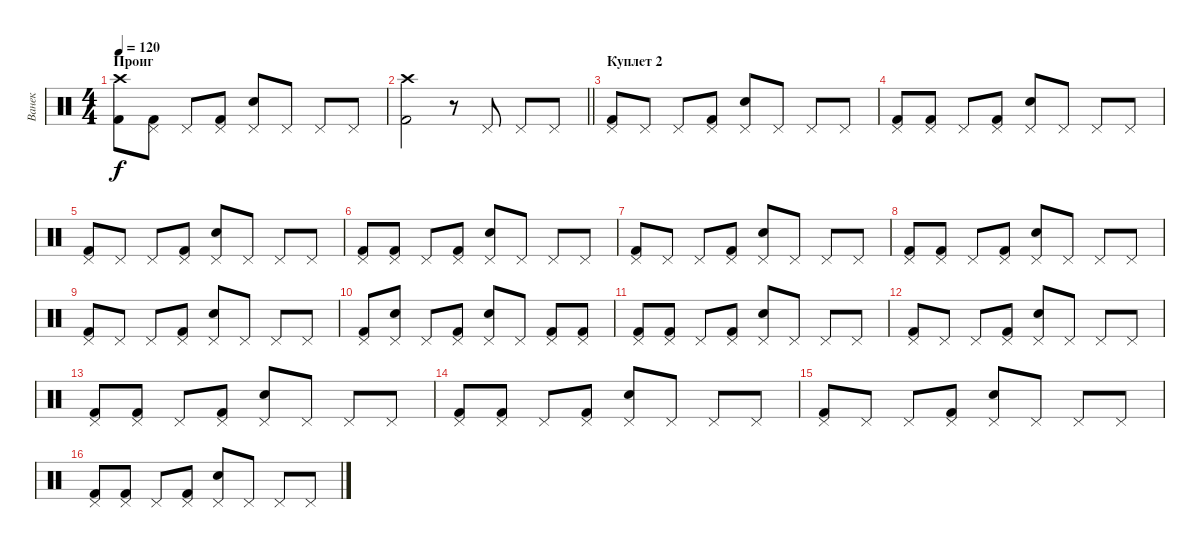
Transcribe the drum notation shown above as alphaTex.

\track ("Ванек" "Ванек") {instrument percussion}
\staff {score}
\articulation defaults
\ts (4 4)
\section ("" "Проиг")
\tempo 120
\clef neutral
\ks c
("Kick (hit) 2" "Crash high (hit)").8{dy f} ("Kick (hit) 2" "Pedal Hi-Hat (hit)").8 "Pedal Hi-Hat (hit)".8 ("Kick (hit) 2" "Pedal Hi-Hat (hit)").8 ("Electric Snare (hit)" "Pedal Hi-Hat (hit)").8 "Pedal Hi-Hat (hit)".8 "Pedal Hi-Hat (hit)".8 "Pedal Hi-Hat (hit)".8 |
\barLineRight lightlight
("Kick (hit) 2" "Crash high (hit)").2 r.8 "Pedal Hi-Hat (hit)".8 "Pedal Hi-Hat (hit)".8 "Pedal Hi-Hat (hit)".8 |
\section ("" "Куплет 2")
("Kick (hit) 2" "Pedal Hi-Hat (hit)").8 "Pedal Hi-Hat (hit)".8 "Pedal Hi-Hat (hit)".8 ("Kick (hit) 2" "Pedal Hi-Hat (hit)").8 ("Electric Snare (hit)" "Pedal Hi-Hat (hit)").8 "Pedal Hi-Hat (hit)".8 "Pedal Hi-Hat (hit)".8 "Pedal Hi-Hat (hit)".8 |
("Kick (hit) 2" "Pedal Hi-Hat (hit)").8 ("Kick (hit) 2" "Pedal Hi-Hat (hit)").8 "Pedal Hi-Hat (hit)".8 ("Kick (hit) 2" "Pedal Hi-Hat (hit)").8 ("Electric Snare (hit)" "Pedal Hi-Hat (hit)").8 "Pedal Hi-Hat (hit)".8 "Pedal Hi-Hat (hit)".8 "Pedal Hi-Hat (hit)".8 |
("Kick (hit) 2" "Pedal Hi-Hat (hit)").8 "Pedal Hi-Hat (hit)".8 "Pedal Hi-Hat (hit)".8 ("Kick (hit) 2" "Pedal Hi-Hat (hit)").8 ("Electric Snare (hit)" "Pedal Hi-Hat (hit)").8 "Pedal Hi-Hat (hit)".8 "Pedal Hi-Hat (hit)".8 "Pedal Hi-Hat (hit)".8 |
("Kick (hit) 2" "Pedal Hi-Hat (hit)").8 ("Kick (hit) 2" "Pedal Hi-Hat (hit)").8 "Pedal Hi-Hat (hit)".8 ("Kick (hit) 2" "Pedal Hi-Hat (hit)").8 ("Electric Snare (hit)" "Pedal Hi-Hat (hit)").8 "Pedal Hi-Hat (hit)".8 "Pedal Hi-Hat (hit)".8 "Pedal Hi-Hat (hit)".8 |
("Kick (hit) 2" "Pedal Hi-Hat (hit)").8 "Pedal Hi-Hat (hit)".8 "Pedal Hi-Hat (hit)".8 ("Kick (hit) 2" "Pedal Hi-Hat (hit)").8 ("Electric Snare (hit)" "Pedal Hi-Hat (hit)").8 "Pedal Hi-Hat (hit)".8 "Pedal Hi-Hat (hit)".8 "Pedal Hi-Hat (hit)".8 |
("Kick (hit) 2" "Pedal Hi-Hat (hit)").8 ("Kick (hit) 2" "Pedal Hi-Hat (hit)").8 "Pedal Hi-Hat (hit)".8 ("Kick (hit) 2" "Pedal Hi-Hat (hit)").8 ("Electric Snare (hit)" "Pedal Hi-Hat (hit)").8 "Pedal Hi-Hat (hit)".8 "Pedal Hi-Hat (hit)".8 "Pedal Hi-Hat (hit)".8 |
("Kick (hit) 2" "Pedal Hi-Hat (hit)").8 "Pedal Hi-Hat (hit)".8 "Pedal Hi-Hat (hit)".8 ("Kick (hit) 2" "Pedal Hi-Hat (hit)").8 ("Electric Snare (hit)" "Pedal Hi-Hat (hit)").8 "Pedal Hi-Hat (hit)".8 "Pedal Hi-Hat (hit)".8 "Pedal Hi-Hat (hit)".8 |
("Kick (hit) 2" "Pedal Hi-Hat (hit)").8 ("Electric Snare (hit)" "Pedal Hi-Hat (hit)").8 "Pedal Hi-Hat (hit)".8 ("Kick (hit) 2" "Pedal Hi-Hat (hit)").8 ("Electric Snare (hit)" "Pedal Hi-Hat (hit)").8 "Pedal Hi-Hat (hit)".8 ("Kick (hit) 2" "Pedal Hi-Hat (hit)").8 ("Kick (hit) 2" "Pedal Hi-Hat (hit)").8 |
("Kick (hit) 2" "Pedal Hi-Hat (hit)").8 ("Kick (hit) 2" "Pedal Hi-Hat (hit)").8 "Pedal Hi-Hat (hit)".8 ("Kick (hit) 2" "Pedal Hi-Hat (hit)").8 ("Electric Snare (hit)" "Pedal Hi-Hat (hit)").8 "Pedal Hi-Hat (hit)".8 "Pedal Hi-Hat (hit)".8 "Pedal Hi-Hat (hit)".8 |
("Kick (hit) 2" "Pedal Hi-Hat (hit)").8 "Pedal Hi-Hat (hit)".8 "Pedal Hi-Hat (hit)".8 ("Kick (hit) 2" "Pedal Hi-Hat (hit)").8 ("Electric Snare (hit)" "Pedal Hi-Hat (hit)").8 "Pedal Hi-Hat (hit)".8 "Pedal Hi-Hat (hit)".8 "Pedal Hi-Hat (hit)".8 |
("Kick (hit) 2" "Pedal Hi-Hat (hit)").8 ("Kick (hit) 2" "Pedal Hi-Hat (hit)").8 "Pedal Hi-Hat (hit)".8 ("Kick (hit) 2" "Pedal Hi-Hat (hit)").8 ("Electric Snare (hit)" "Pedal Hi-Hat (hit)").8 "Pedal Hi-Hat (hit)".8 "Pedal Hi-Hat (hit)".8 "Pedal Hi-Hat (hit)".8 |
("Kick (hit) 2" "Pedal Hi-Hat (hit)").8 ("Kick (hit) 2" "Pedal Hi-Hat (hit)").8 "Pedal Hi-Hat (hit)".8 ("Kick (hit) 2" "Pedal Hi-Hat (hit)").8 ("Electric Snare (hit)" "Pedal Hi-Hat (hit)").8 "Pedal Hi-Hat (hit)".8 "Pedal Hi-Hat (hit)".8 "Pedal Hi-Hat (hit)".8 |
("Kick (hit) 2" "Pedal Hi-Hat (hit)").8 "Pedal Hi-Hat (hit)".8 "Pedal Hi-Hat (hit)".8 ("Kick (hit) 2" "Pedal Hi-Hat (hit)").8 ("Electric Snare (hit)" "Pedal Hi-Hat (hit)").8 "Pedal Hi-Hat (hit)".8 "Pedal Hi-Hat (hit)".8 "Pedal Hi-Hat (hit)".8 |
("Kick (hit) 2" "Pedal Hi-Hat (hit)").8 ("Kick (hit) 2" "Pedal Hi-Hat (hit)").8 "Pedal Hi-Hat (hit)".8 ("Kick (hit) 2" "Pedal Hi-Hat (hit)").8 ("Electric Snare (hit)" "Pedal Hi-Hat (hit)").8 "Pedal Hi-Hat (hit)".8 "Pedal Hi-Hat (hit)".8 "Pedal Hi-Hat (hit)".8
